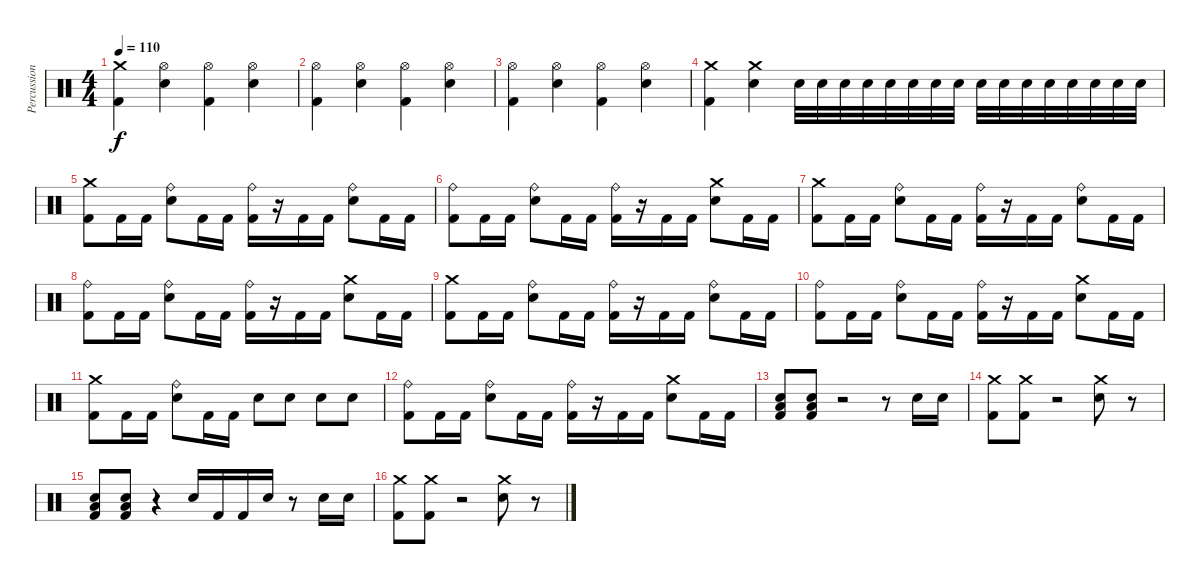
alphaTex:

\track ("Percussion" "Percussion") {instrument percussion}
\staff {score}
\articulation defaults
\ts (4 4)
\tempo 110
\clef neutral
\ks c
("Crash medium (hit)" "Kick (hit) 2").4{dy f} ("Hi-Hat (open)" "Snare (hit) 2").4 ("Hi-Hat (open)" "Kick (hit) 2").4 ("Hi-Hat (open)" "Snare (hit) 2").4 |
("Hi-Hat (open)" "Kick (hit) 2").4 ("Hi-Hat (open)" "Snare (hit) 2").4 ("Hi-Hat (open)" "Kick (hit) 2").4 ("Hi-Hat (open)" "Snare (hit) 2").4 |
("Hi-Hat (open)" "Kick (hit) 2").4 ("Hi-Hat (open)" "Snare (hit) 2").4 ("Hi-Hat (open)" "Kick (hit) 2").4 ("Hi-Hat (open)" "Snare (hit) 2").4 |
("Crash medium (hit)" "Kick (hit) 2").4 ("Crash medium (hit)" "Snare (hit) 2").4 "Snare (hit) 2".32 "Snare (hit) 2".32 "Snare (hit) 2".32 "Snare (hit) 2".32 "Snare (hit) 2".32 "Snare (hit) 2".32 "Snare (hit) 2".32 "Snare (hit) 2".32 "Snare (hit) 2".32 "Snare (hit) 2".32 "Snare (hit) 2".32 "Snare (hit) 2".32 "Snare (hit) 2".32 "Snare (hit) 2".32 "Snare (hit) 2".32 "Snare (hit) 2".32 |
("Crash medium (hit)" "Kick (hit) 2").8 "Kick (hit) 2".16 "Kick (hit) 2".16 ("Ride (bell)" "Snare (hit) 2").8 "Kick (hit) 2".16 "Kick (hit) 2".16 ("Ride (bell)" "Kick (hit) 2").16 r.16 "Kick (hit) 2".16 "Kick (hit) 2".16 ("Ride (bell)" "Snare (hit) 2").8 "Kick (hit) 2".16 "Kick (hit) 2".16 |
("Ride (bell)" "Kick (hit) 2").8 "Kick (hit) 2".16 "Kick (hit) 2".16 ("Ride (bell)" "Snare (hit) 2").8 "Kick (hit) 2".16 "Kick (hit) 2".16 ("Ride (bell)" "Kick (hit) 2").16 r.16 "Kick (hit) 2".16 "Kick (hit) 2".16 ("Crash medium (hit)" "Snare (hit) 2").8 "Kick (hit) 2".16 "Kick (hit) 2".16 |
("Crash medium (hit)" "Kick (hit) 2").8 "Kick (hit) 2".16 "Kick (hit) 2".16 ("Ride (bell)" "Snare (hit) 2").8 "Kick (hit) 2".16 "Kick (hit) 2".16 ("Ride (bell)" "Kick (hit) 2").16 r.16 "Kick (hit) 2".16 "Kick (hit) 2".16 ("Ride (bell)" "Snare (hit) 2").8 "Kick (hit) 2".16 "Kick (hit) 2".16 |
("Ride (bell)" "Kick (hit) 2").8 "Kick (hit) 2".16 "Kick (hit) 2".16 ("Ride (bell)" "Snare (hit) 2").8 "Kick (hit) 2".16 "Kick (hit) 2".16 ("Ride (bell)" "Kick (hit) 2").16 r.16 "Kick (hit) 2".16 "Kick (hit) 2".16 ("Crash medium (hit)" "Snare (hit) 2").8 "Kick (hit) 2".16 "Kick (hit) 2".16 |
("Crash medium (hit)" "Kick (hit) 2").8 "Kick (hit) 2".16 "Kick (hit) 2".16 ("Ride (bell)" "Snare (hit) 2").8 "Kick (hit) 2".16 "Kick (hit) 2".16 ("Ride (bell)" "Kick (hit) 2").16 r.16 "Kick (hit) 2".16 "Kick (hit) 2".16 ("Ride (bell)" "Snare (hit) 2").8 "Kick (hit) 2".16 "Kick (hit) 2".16 |
("Ride (bell)" "Kick (hit) 2").8 "Kick (hit) 2".16 "Kick (hit) 2".16 ("Ride (bell)" "Snare (hit) 2").8 "Kick (hit) 2".16 "Kick (hit) 2".16 ("Ride (bell)" "Kick (hit) 2").16 r.16 "Kick (hit) 2".16 "Kick (hit) 2".16 ("Crash medium (hit)" "Snare (hit) 2").8 "Kick (hit) 2".16 "Kick (hit) 2".16 |
("Crash medium (hit)" "Kick (hit) 2").8 "Kick (hit) 2".16 "Kick (hit) 2".16 ("Ride (bell)" "Snare (hit) 2").8 "Kick (hit) 2".16 "Kick (hit) 2".16 "Snare (hit) 2".8 "Snare (hit) 2".8 "Snare (hit) 2".8 "Snare (hit) 2".8 |
("Ride (bell)" "Kick (hit) 2").8 "Kick (hit) 2".16 "Kick (hit) 2".16 ("Ride (bell)" "Snare (hit) 2").8 "Kick (hit) 2".16 "Kick (hit) 2".16 ("Ride (bell)" "Kick (hit) 2").16 r.16 "Kick (hit) 2".16 "Kick (hit) 2".16 ("Crash medium (hit)" "Snare (hit) 2").8 "Kick (hit) 2".16 "Kick (hit) 2".16 |
("Low Floor Tom (hit)" "Snare (hit) 2" "Kick (hit) 2").8 ("Low Floor Tom (hit)" "Snare (hit) 2" "Kick (hit) 2").8 r.2 r.8 "Snare (hit) 2".16 "Snare (hit) 2".16 |
("Crash medium (hit)" "Kick (hit) 2").8 ("Crash medium (hit)" "Kick (hit) 2").8 r.2 ("Crash medium (hit)" "Snare (hit) 2").8 r.8 |
("Low Floor Tom (hit)" "Snare (hit) 2" "Kick (hit) 2").8 ("Low Floor Tom (hit)" "Snare (hit) 2" "Kick (hit) 2").8 r.4 "Snare (hit) 2".16 "Kick (hit) 2".16 "Kick (hit) 2".16 "Snare (hit) 2".16 r.8 "Snare (hit) 2".16 "Snare (hit) 2".16 |
("Crash medium (hit)" "Kick (hit) 2").8 ("Crash medium (hit)" "Kick (hit) 2").8 r.2 ("Crash medium (hit)" "Snare (hit) 2").8 r.8
